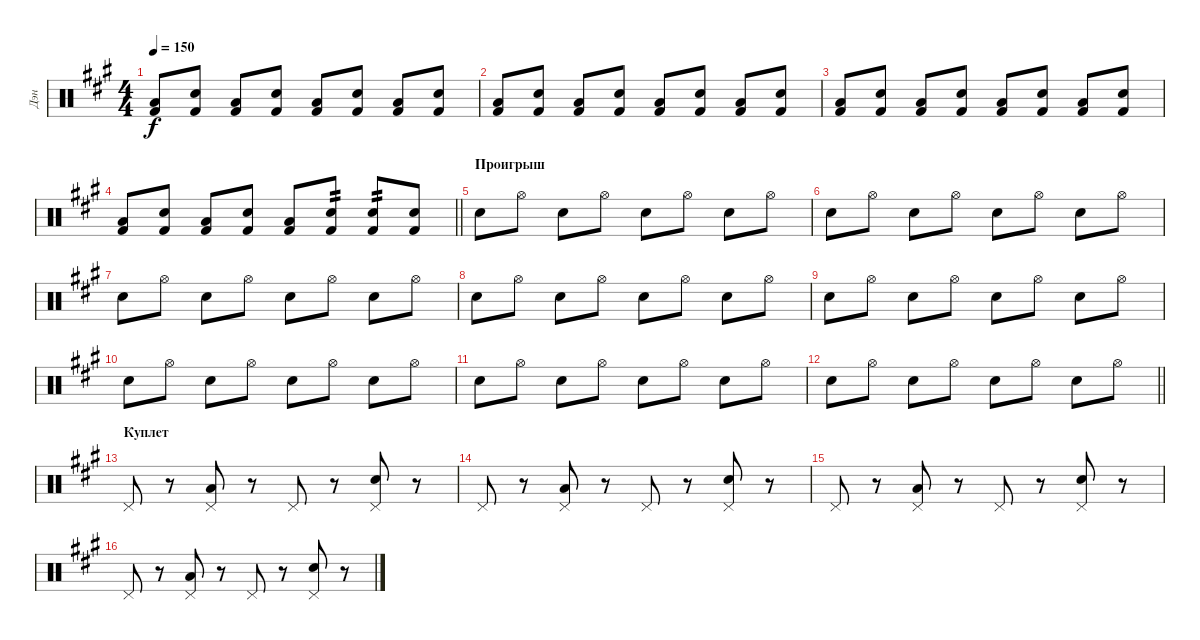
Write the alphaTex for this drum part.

\track ("Дэн" "Дэн") {instrument percussion}
\staff {score}
\articulation defaults
\ts (4 4)
\tempo 150
\clef neutral
\ks f#minor
("Low Tom (hit)" "Kick (hit) 2").8{dy f} ("Snare (hit) 2" "Kick (hit) 2").8 ("Low Tom (hit)" "Kick (hit) 2").8 ("Snare (hit) 2" "Kick (hit) 2").8 ("Low Tom (hit)" "Kick (hit) 2").8 ("Snare (hit) 2" "Kick (hit) 2").8 ("Low Tom (hit)" "Kick (hit) 2").8 ("Snare (hit) 2" "Kick (hit) 2").8 |
("Low Tom (hit)" "Kick (hit) 2").8 ("Snare (hit) 2" "Kick (hit) 2").8 ("Low Tom (hit)" "Kick (hit) 2").8 ("Snare (hit) 2" "Kick (hit) 2").8 ("Low Tom (hit)" "Kick (hit) 2").8 ("Snare (hit) 2" "Kick (hit) 2").8 ("Low Tom (hit)" "Kick (hit) 2").8 ("Snare (hit) 2" "Kick (hit) 2").8 |
("Low Tom (hit)" "Kick (hit) 2").8 ("Snare (hit) 2" "Kick (hit) 2").8 ("Low Tom (hit)" "Kick (hit) 2").8 ("Snare (hit) 2" "Kick (hit) 2").8 ("Low Tom (hit)" "Kick (hit) 2").8 ("Snare (hit) 2" "Kick (hit) 2").8 ("Low Tom (hit)" "Kick (hit) 2").8 ("Snare (hit) 2" "Kick (hit) 2").8 |
\barLineRight lightlight
("Low Tom (hit)" "Kick (hit) 2").8 ("Snare (hit) 2" "Kick (hit) 2").8 ("Low Tom (hit)" "Kick (hit) 2").8 ("Snare (hit) 2" "Kick (hit) 2").8 ("Low Tom (hit)" "Kick (hit) 2").8 ("Snare (hit) 2" "Kick (hit) 2").8{tp 2} ("Snare (hit) 2" "Kick (hit) 2").8{tp 2} ("Snare (hit) 2" "Kick (hit) 2").8 |
\section ("" "Проигрыш")
"Snare (hit) 2".8 "Hi-Hat (open)".8 "Snare (hit) 2".8 "Hi-Hat (open)".8 "Snare (hit) 2".8 "Hi-Hat (open)".8 "Snare (hit) 2".8 "Hi-Hat (open)".8 |
"Snare (hit) 2".8 "Hi-Hat (open)".8 "Snare (hit) 2".8 "Hi-Hat (open)".8 "Snare (hit) 2".8 "Hi-Hat (open)".8 "Snare (hit) 2".8 "Hi-Hat (open)".8 |
"Snare (hit) 2".8 "Hi-Hat (open)".8 "Snare (hit) 2".8 "Hi-Hat (open)".8 "Snare (hit) 2".8 "Hi-Hat (open)".8 "Snare (hit) 2".8 "Hi-Hat (open)".8 |
"Snare (hit) 2".8 "Hi-Hat (open)".8 "Snare (hit) 2".8 "Hi-Hat (open)".8 "Snare (hit) 2".8 "Hi-Hat (open)".8 "Snare (hit) 2".8 "Hi-Hat (open)".8 |
"Snare (hit) 2".8 "Hi-Hat (open)".8 "Snare (hit) 2".8 "Hi-Hat (open)".8 "Snare (hit) 2".8 "Hi-Hat (open)".8 "Snare (hit) 2".8 "Hi-Hat (open)".8 |
"Snare (hit) 2".8 "Hi-Hat (open)".8 "Snare (hit) 2".8 "Hi-Hat (open)".8 "Snare (hit) 2".8 "Hi-Hat (open)".8 "Snare (hit) 2".8 "Hi-Hat (open)".8 |
"Snare (hit) 2".8 "Hi-Hat (open)".8 "Snare (hit) 2".8 "Hi-Hat (open)".8 "Snare (hit) 2".8 "Hi-Hat (open)".8 "Snare (hit) 2".8 "Hi-Hat (open)".8 |
\barLineRight lightlight "Snare (hit) 2".8 "Hi-Hat (open)".8 "Snare (hit) 2".8 "Hi-Hat (open)".8 "Snare (hit) 2".8 "Hi-Hat (open)".8 "Snare (hit) 2".8 "Hi-Hat (open)".8
|
\section ("" "Куплет")
"Pedal Hi-Hat (hit)".8 r.8 ("Low Tom (hit)" "Pedal Hi-Hat (hit)").8 r.8 "Pedal Hi-Hat (hit)".8 r.8 ("Snare (hit) 2" "Pedal Hi-Hat (hit)").8 r.8 |
"Pedal Hi-Hat (hit)".8 r.8 ("Low Tom (hit)" "Pedal Hi-Hat (hit)").8 r.8 "Pedal Hi-Hat (hit)".8 r.8 ("Snare (hit) 2" "Pedal Hi-Hat (hit)").8 r.8 |
"Pedal Hi-Hat (hit)".8 r.8 ("Low Tom (hit)" "Pedal Hi-Hat (hit)").8 r.8 "Pedal Hi-Hat (hit)".8 r.8 ("Snare (hit) 2" "Pedal Hi-Hat (hit)").8 r.8 |
"Pedal Hi-Hat (hit)".8 r.8 ("Low Tom (hit)" "Pedal Hi-Hat (hit)").8 r.8 "Pedal Hi-Hat (hit)".8 r.8 ("Snare (hit) 2" "Pedal Hi-Hat (hit)").8 r.8
